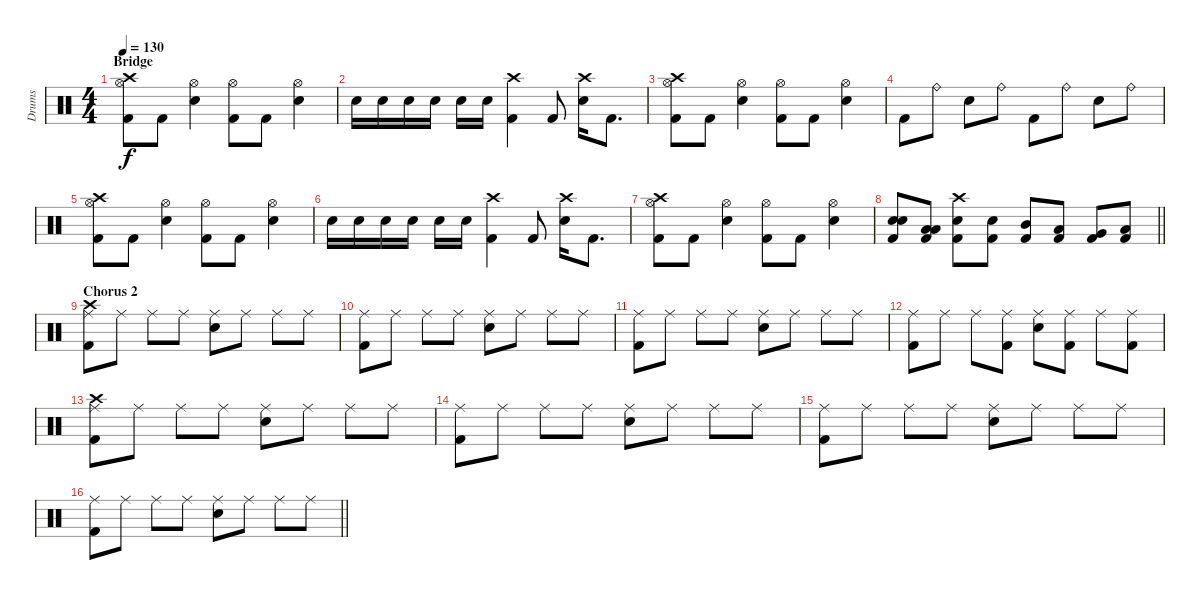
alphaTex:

\track ("Drums" "Drums") {instrument percussion}
\staff {score}
\articulation defaults
\ts (4 4)
\section ("" "Bridge")
\tempo 130
\clef neutral
\ks c
("Hi-Hat (open)" "Crash high (hit)" "Kick (hit) 2").8{dy f} "Kick (hit) 2".8 ("Hi-Hat (open)" "Snare (hit) 2").4 ("Hi-Hat (open)" "Kick (hit) 2").8 "Kick (hit) 2".8 ("Hi-Hat (open)" "Snare (hit) 2").4 |
"Snare (hit) 2".16 "Snare (hit) 2".16 "Snare (hit) 2".16 "Snare (hit) 2".16 "Snare (hit) 2".16 "Snare (hit) 2".16 ("Crash high (hit)" "Kick (hit) 2").4 "Kick (hit) 2".8 ("Crash high (hit)" "Snare (hit) 2").16 "Kick (hit) 2".8{d} |
("Hi-Hat (open)" "Crash high (hit)" "Kick (hit) 2").8 "Kick (hit) 2".8 ("Hi-Hat (open)" "Snare (hit) 2").4 ("Hi-Hat (open)" "Kick (hit) 2").8 "Kick (hit) 2".8 ("Hi-Hat (open)" "Snare (hit) 2").4 |
"Kick (hit) 2".8 "Ride (bell)".8 "Snare (hit) 2".8 "Ride (bell)".8 "Kick (hit) 2".8 "Ride (bell)".8 "Snare (hit) 2".8 "Ride (bell)".8 |
("Hi-Hat (open)" "Crash high (hit)" "Kick (hit) 2").8 "Kick (hit) 2".8 ("Hi-Hat (open)" "Snare (hit) 2").4 ("Hi-Hat (open)" "Kick (hit) 2").8 "Kick (hit) 2".8 ("Hi-Hat (open)" "Snare (hit) 2").4 |
"Snare (hit) 2".16 "Snare (hit) 2".16 "Snare (hit) 2".16 "Snare (hit) 2".16 "Snare (hit) 2".16 "Snare (hit) 2".16 ("Crash high (hit)" "Kick (hit) 2").4 "Kick (hit) 2".8 ("Crash high (hit)" "Snare (hit) 2").16 "Kick (hit) 2".8{d} |
("Hi-Hat (open)" "Crash high (hit)" "Kick (hit) 2").8 "Kick (hit) 2".8 ("Hi-Hat (open)" "Snare (hit) 2").4 ("Hi-Hat (open)" "Kick (hit) 2").8 "Kick (hit) 2".8 ("Hi-Hat (open)" "Snare (hit) 2").4 |
\barLineRight lightlight
("Snare (hit) 2" "Snare (hit) 2" "Kick (hit) 2").8 ("Low Tom (hit)" "Low Tom (hit)" "Kick (hit) 2").8 ("Crash high (hit)" "Snare (hit) 2" "Kick (hit) 2").8 ("Snare (hit) 2" "Kick (hit) 2").8 ("Mid Tom (hit)" "Kick (hit) 2").8 ("Low Tom (hit)" "Kick (hit) 2").8 ("Very Low Tom (hit)" "Kick (hit) 2").8 ("Low Floor Tom (hit)" "Kick (hit) 2").8 |
\section ("" "Chorus 2")
("Ride (middle)" "Crash high (hit)" "Kick (hit) 2").8 "Ride (middle)".8 "Ride (middle)".8 "Ride (middle)".8 ("Ride (middle)" "Snare (hit) 2").8 "Ride (middle)".8 "Ride (middle)".8 "Ride (middle)".8 |
("Ride (middle)" "Kick (hit) 2").8 "Ride (middle)".8 "Ride (middle)".8 "Ride (middle)".8 ("Ride (middle)" "Snare (hit) 2").8 "Ride (middle)".8 "Ride (middle)".8 "Ride (middle)".8 |
("Ride (middle)" "Kick (hit) 2").8 "Ride (middle)".8 "Ride (middle)".8 "Ride (middle)".8 ("Ride (middle)" "Snare (hit) 2").8 "Ride (middle)".8 "Ride (middle)".8 "Ride (middle)".8 |
("Ride (middle)" "Kick (hit) 2").8 "Ride (middle)".8 "Ride (middle)".8 ("Ride (middle)" "Kick (hit) 2").8 ("Ride (middle)" "Snare (hit) 2").8 ("Ride (middle)" "Kick (hit) 2").8 "Ride (middle)".8 ("Ride (middle)" "Kick (hit) 2").8 |
("Ride (middle)" "Crash high (hit)" "Kick (hit) 2").8 "Ride (middle)".8 "Ride (middle)".8 "Ride (middle)".8 ("Ride (middle)" "Snare (hit) 2").8 "Ride (middle)".8 "Ride (middle)".8 "Ride (middle)".8 |
("Ride (middle)" "Kick (hit) 2").8 "Ride (middle)".8 "Ride (middle)".8 "Ride (middle)".8 ("Ride (middle)" "Snare (hit) 2").8 "Ride (middle)".8 "Ride (middle)".8 "Ride (middle)".8 |
("Ride (middle)" "Kick (hit) 2").8 "Ride (middle)".8 "Ride (middle)".8 "Ride (middle)".8 ("Ride (middle)" "Snare (hit) 2").8 "Ride (middle)".8 "Ride (middle)".8 "Ride (middle)".8 |
\barLineRight lightlight
("Ride (middle)" "Kick (hit) 2").8 "Ride (middle)".8 "Ride (middle)".8 "Ride (middle)".8 ("Ride (middle)" "Snare (hit) 2").8 "Ride (middle)".8 "Ride (middle)".8 "Ride (middle)".8
